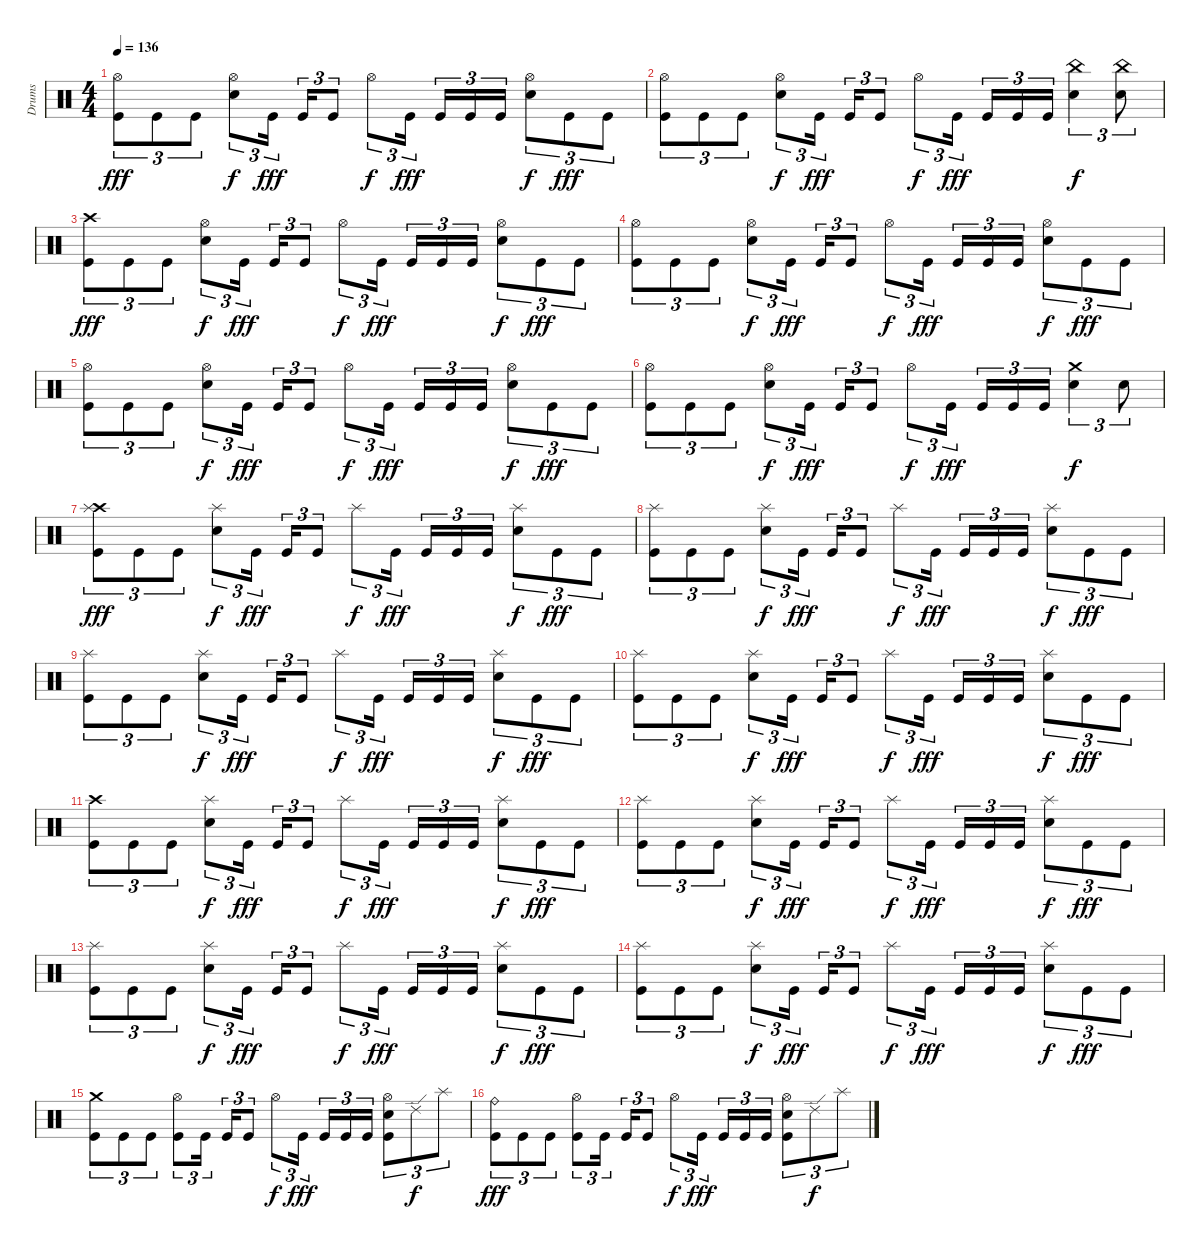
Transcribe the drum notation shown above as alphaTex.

\track ("Drums" "Drums") {instrument percussion}
\staff {score}
\articulation defaults
\ts (4 4)
\tempo 136
\clef neutral
\ks c
("Hi-Hat (open)" "Kick (hit)").8{tu (3 2) dy fff} "Kick (hit)".8{tu (3 2)} "Kick (hit)".8{tu (3 2)} ("Hi-Hat (open)" "Electric Snare (hit)").8{tu (3 2) dy f} "Kick (hit)".16{tu (3 2) dy fff beam splitsecondary} "Kick (hit)".16{tu (3 2)} "Kick (hit)".8{tu (3 2)} "Hi-Hat (open)".8{tu (3 2) dy f} "Kick (hit)".16{tu (3 2) dy fff beam splitsecondary} "Kick (hit)".16{tu (3 2)} "Kick (hit)".16{tu (3 2)} "Kick (hit)".16{tu (3 2)} ("Hi-Hat (open)" "Electric Snare (hit)").8{tu (3 2) dy f} "Kick (hit)".8{tu (3 2) dy fff} "Kick (hit)".8{tu (3 2)} |
("Hi-Hat (open)" "Kick (hit)").8{tu (3 2)} "Kick (hit)".8{tu (3 2)} "Kick (hit)".8{tu (3 2)} ("Hi-Hat (open)" "Electric Snare (hit)").8{tu (3 2) dy f} "Kick (hit)".16{tu (3 2) dy fff beam splitsecondary} "Kick (hit)".16{tu (3 2)} "Kick (hit)".8{tu (3 2)} "Hi-Hat (open)".8{tu (3 2) dy f} "Kick (hit)".16{tu (3 2) dy fff beam splitsecondary} "Kick (hit)".16{tu (3 2)} "Kick (hit)".16{tu (3 2)} "Kick (hit)".16{tu (3 2)} ("China (hit)" "Electric Snare (hit)").4{tu (3 2) dy f} ("China (hit)" "Electric Snare (hit)").8{tu (3 2)} |
("Crash high (hit)" "Kick (hit)").8{tu (3 2) dy fff} "Kick (hit)".8{tu (3 2)} "Kick (hit)".8{tu (3 2)} ("Hi-Hat (open)" "Electric Snare (hit)").8{tu (3 2) dy f} "Kick (hit)".16{tu (3 2) dy fff beam splitsecondary} "Kick (hit)".16{tu (3 2)} "Kick (hit)".8{tu (3 2)} "Hi-Hat (open)".8{tu (3 2) dy f} "Kick (hit)".16{tu (3 2) dy fff beam splitsecondary} "Kick (hit)".16{tu (3 2)} "Kick (hit)".16{tu (3 2)} "Kick (hit)".16{tu (3 2)} ("Hi-Hat (open)" "Electric Snare (hit)").8{tu (3 2) dy f} "Kick (hit)".8{tu (3 2) dy fff} "Kick (hit)".8{tu (3 2)} |
("Hi-Hat (open)" "Kick (hit)").8{tu (3 2)} "Kick (hit)".8{tu (3 2)} "Kick (hit)".8{tu (3 2)} ("Hi-Hat (open)" "Electric Snare (hit)").8{tu (3 2) dy f} "Kick (hit)".16{tu (3 2) dy fff beam splitsecondary} "Kick (hit)".16{tu (3 2)} "Kick (hit)".8{tu (3 2)} "Hi-Hat (open)".8{tu (3 2) dy f} "Kick (hit)".16{tu (3 2) dy fff beam splitsecondary} "Kick (hit)".16{tu (3 2)} "Kick (hit)".16{tu (3 2)} "Kick (hit)".16{tu (3 2)} ("Hi-Hat (open)" "Electric Snare (hit)").8{tu (3 2) dy f} "Kick (hit)".8{tu (3 2) dy fff} "Kick (hit)".8{tu (3 2)} |
("Hi-Hat (open)" "Kick (hit)").8{tu (3 2)} "Kick (hit)".8{tu (3 2)} "Kick (hit)".8{tu (3 2)} ("Hi-Hat (open)" "Electric Snare (hit)").8{tu (3 2) dy f} "Kick (hit)".16{tu (3 2) dy fff beam splitsecondary} "Kick (hit)".16{tu (3 2)} "Kick (hit)".8{tu (3 2)} "Hi-Hat (open)".8{tu (3 2) dy f} "Kick (hit)".16{tu (3 2) dy fff beam splitsecondary} "Kick (hit)".16{tu (3 2)} "Kick (hit)".16{tu (3 2)} "Kick (hit)".16{tu (3 2)} ("Hi-Hat (open)" "Electric Snare (hit)").8{tu (3 2) dy f} "Kick (hit)".8{tu (3 2) dy fff} "Kick (hit)".8{tu (3 2)} |
("Hi-Hat (open)" "Kick (hit)").8{tu (3 2)} "Kick (hit)".8{tu (3 2)} "Kick (hit)".8{tu (3 2)} ("Hi-Hat (open)" "Electric Snare (hit)").8{tu (3 2) dy f} "Kick (hit)".16{tu (3 2) dy fff beam splitsecondary} "Kick (hit)".16{tu (3 2)} "Kick (hit)".8{tu (3 2)} "Hi-Hat (open)".8{tu (3 2) dy f} "Kick (hit)".16{tu (3 2) dy fff beam splitsecondary} "Kick (hit)".16{tu (3 2)} "Kick (hit)".16{tu (3 2)} "Kick (hit)".16{tu (3 2)} ("Crash medium (hit)" "Electric Snare (hit)").4{tu (3 2) dy f} "Electric Snare (hit)".8{tu (3 2)} |
("Crash high (hit)" "Splash (hit)" "Kick (hit)").8{tu (3 2) dy fff} "Kick (hit)".8{tu (3 2)} "Kick (hit)".8{tu (3 2)} ("Splash (hit)" "Electric Snare (hit)").8{tu (3 2) dy f} "Kick (hit)".16{tu (3 2) dy fff beam splitsecondary} "Kick (hit)".16{tu (3 2)} "Kick (hit)".8{tu (3 2)} "Splash (hit)".8{tu (3 2) dy f} "Kick (hit)".16{tu (3 2) dy fff beam splitsecondary} "Kick (hit)".16{tu (3 2)} "Kick (hit)".16{tu (3 2)} "Kick (hit)".16{tu (3 2)} ("Splash (hit)" "Electric Snare (hit)").8{tu (3 2) dy f} "Kick (hit)".8{tu (3 2) dy fff} "Kick (hit)".8{tu (3 2)} |
("Splash (hit)" "Kick (hit)").8{tu (3 2)} "Kick (hit)".8{tu (3 2)} "Kick (hit)".8{tu (3 2)} ("Splash (hit)" "Electric Snare (hit)").8{tu (3 2) dy f} "Kick (hit)".16{tu (3 2) dy fff beam splitsecondary} "Kick (hit)".16{tu (3 2)} "Kick (hit)".8{tu (3 2)} "Splash (hit)".8{tu (3 2) dy f} "Kick (hit)".16{tu (3 2) dy fff beam splitsecondary} "Kick (hit)".16{tu (3 2)} "Kick (hit)".16{tu (3 2)} "Kick (hit)".16{tu (3 2)} ("Splash (hit)" "Electric Snare (hit)").8{tu (3 2) dy f} "Kick (hit)".8{tu (3 2) dy fff} "Kick (hit)".8{tu (3 2)} |
("Splash (hit)" "Kick (hit)").8{tu (3 2)} "Kick (hit)".8{tu (3 2)} "Kick (hit)".8{tu (3 2)} ("Splash (hit)" "Electric Snare (hit)").8{tu (3 2) dy f} "Kick (hit)".16{tu (3 2) dy fff beam splitsecondary} "Kick (hit)".16{tu (3 2)} "Kick (hit)".8{tu (3 2)} "Splash (hit)".8{tu (3 2) dy f} "Kick (hit)".16{tu (3 2) dy fff beam splitsecondary} "Kick (hit)".16{tu (3 2)} "Kick (hit)".16{tu (3 2)} "Kick (hit)".16{tu (3 2)} ("Splash (hit)" "Electric Snare (hit)").8{tu (3 2) dy f} "Kick (hit)".8{tu (3 2) dy fff} "Kick (hit)".8{tu (3 2)} |
("Splash (hit)" "Kick (hit)").8{tu (3 2)} "Kick (hit)".8{tu (3 2)} "Kick (hit)".8{tu (3 2)} ("Splash (hit)" "Electric Snare (hit)").8{tu (3 2) dy f} "Kick (hit)".16{tu (3 2) dy fff beam splitsecondary} "Kick (hit)".16{tu (3 2)} "Kick (hit)".8{tu (3 2)} "Splash (hit)".8{tu (3 2) dy f} "Kick (hit)".16{tu (3 2) dy fff beam splitsecondary} "Kick (hit)".16{tu (3 2)} "Kick (hit)".16{tu (3 2)} "Kick (hit)".16{tu (3 2)} ("Splash (hit)" "Electric Snare (hit)").8{tu (3 2) dy f} "Kick (hit)".8{tu (3 2) dy fff} "Kick (hit)".8{tu (3 2)} |
("Crash high (hit)" "Kick (hit)").8{tu (3 2)} "Kick (hit)".8{tu (3 2)} "Kick (hit)".8{tu (3 2)} ("Splash (hit)" "Electric Snare (hit)").8{tu (3 2) dy f} "Kick (hit)".16{tu (3 2) dy fff beam splitsecondary} "Kick (hit)".16{tu (3 2)} "Kick (hit)".8{tu (3 2)} "Splash (hit)".8{tu (3 2) dy f} "Kick (hit)".16{tu (3 2) dy fff beam splitsecondary} "Kick (hit)".16{tu (3 2)} "Kick (hit)".16{tu (3 2)} "Kick (hit)".16{tu (3 2)} ("Splash (hit)" "Electric Snare (hit)").8{tu (3 2) dy f} "Kick (hit)".8{tu (3 2) dy fff} "Kick (hit)".8{tu (3 2)} |
("Splash (hit)" "Kick (hit)").8{tu (3 2)} "Kick (hit)".8{tu (3 2)} "Kick (hit)".8{tu (3 2)} ("Splash (hit)" "Electric Snare (hit)").8{tu (3 2) dy f} "Kick (hit)".16{tu (3 2) dy fff beam splitsecondary} "Kick (hit)".16{tu (3 2)} "Kick (hit)".8{tu (3 2)} "Splash (hit)".8{tu (3 2) dy f} "Kick (hit)".16{tu (3 2) dy fff beam splitsecondary} "Kick (hit)".16{tu (3 2)} "Kick (hit)".16{tu (3 2)} "Kick (hit)".16{tu (3 2)} ("Splash (hit)" "Electric Snare (hit)").8{tu (3 2) dy f} "Kick (hit)".8{tu (3 2) dy fff} "Kick (hit)".8{tu (3 2)} |
("Splash (hit)" "Kick (hit)").8{tu (3 2)} "Kick (hit)".8{tu (3 2)} "Kick (hit)".8{tu (3 2)} ("Splash (hit)" "Electric Snare (hit)").8{tu (3 2) dy f} "Kick (hit)".16{tu (3 2) dy fff beam splitsecondary} "Kick (hit)".16{tu (3 2)} "Kick (hit)".8{tu (3 2)} "Splash (hit)".8{tu (3 2) dy f} "Kick (hit)".16{tu (3 2) dy fff beam splitsecondary} "Kick (hit)".16{tu (3 2)} "Kick (hit)".16{tu (3 2)} "Kick (hit)".16{tu (3 2)} ("Splash (hit)" "Electric Snare (hit)").8{tu (3 2) dy f} "Kick (hit)".8{tu (3 2) dy fff} "Kick (hit)".8{tu (3 2)} |
("Splash (hit)" "Kick (hit)").8{tu (3 2)} "Kick (hit)".8{tu (3 2)} "Kick (hit)".8{tu (3 2)} ("Splash (hit)" "Electric Snare (hit)").8{tu (3 2) dy f} "Kick (hit)".16{tu (3 2) dy fff beam splitsecondary} "Kick (hit)".16{tu (3 2)} "Kick (hit)".8{tu (3 2)} "Splash (hit)".8{tu (3 2) dy f} "Kick (hit)".16{tu (3 2) dy fff beam splitsecondary} "Kick (hit)".16{tu (3 2)} "Kick (hit)".16{tu (3 2)} "Kick (hit)".16{tu (3 2)} ("Splash (hit)" "Electric Snare (hit)").8{tu (3 2) dy f} "Kick (hit)".8{tu (3 2) dy fff} "Kick (hit)".8{tu (3 2)} |
("Crash medium (hit)" "Kick (hit)").8{tu (3 2)} "Kick (hit)".8{tu (3 2)} "Kick (hit)".8{tu (3 2)} ("Hi-Hat (open)" "Kick (hit)").8{tu (3 2)} "Kick (hit)".16{tu (3 2) beam splitsecondary} "Kick (hit)".16{tu (3 2)} "Kick (hit)".8{tu (3 2)} "Hi-Hat (open)".8{tu (3 2) dy f} "Kick (hit)".16{tu (3 2) dy fff beam splitsecondary} "Kick (hit)".16{tu (3 2)} "Kick (hit)".16{tu (3 2)} "Kick (hit)".16{tu (3 2)} ("Hi-Hat (open)" "Electric Snare (hit)" "Kick (hit)").8{tu (3 2)} "Ride (edge) 2".8{tu (3 2) dy f} "Splash (hit)".8{tu (3 2)} |
("Ride (bell)" "Kick (hit)").8{tu (3 2) dy fff} "Kick (hit)".8{tu (3 2)} "Kick (hit)".8{tu (3 2)} ("Hi-Hat (open)" "Kick (hit)").8{tu (3 2)} "Kick (hit)".16{tu (3 2) beam splitsecondary} "Kick (hit)".16{tu (3 2)} "Kick (hit)".8{tu (3 2)} "Hi-Hat (open)".8{tu (3 2) dy f} "Kick (hit)".16{tu (3 2) dy fff beam splitsecondary} "Kick (hit)".16{tu (3 2)} "Kick (hit)".16{tu (3 2)} "Kick (hit)".16{tu (3 2)} ("Hi-Hat (open)" "Electric Snare (hit)" "Kick (hit)").8{tu (3 2)} "Ride (edge) 2".8{tu (3 2) dy f} "Splash (hit)".8{tu (3 2)}
